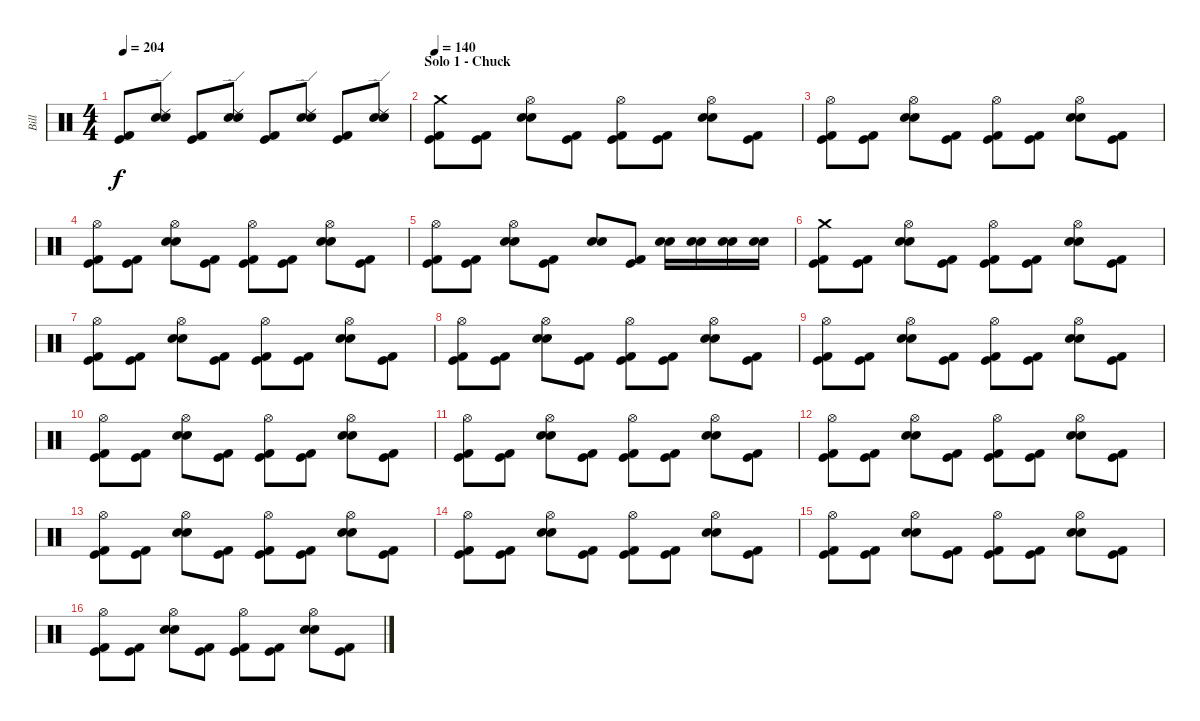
\track ("Bill" "Bill") {instrument percussion}
\staff {score}
\articulation defaults
\ts (4 4)
\tempo 204
\clef neutral
\ks c
("Kick (hit)" "Kick (hit) 2").8{dy f} ("Ride (edge) 2" "Snare (hit) 2" "Electric Snare (hit)").8 ("Kick (hit)" "Kick (hit) 2").8 ("Ride (edge) 2" "Snare (hit) 2" "Electric Snare (hit)").8 ("Kick (hit)" "Kick (hit) 2").8 ("Ride (edge) 2" "Snare (hit) 2" "Electric Snare (hit)").8 ("Kick (hit)" "Kick (hit) 2").8 ("Ride (edge) 2" "Snare (hit) 2" "Electric Snare (hit)").8 |
\section ("" "Solo 1 - Chuck")
\tempo 140
("Crash medium (hit)" "Kick (hit) 2" "Kick (hit)").8 ("Kick (hit) 2" "Kick (hit)").8 ("Hi-Hat (open)" "Snare (hit) 2" "Electric Snare (hit)").8 ("Kick (hit)" "Kick (hit) 2").8 ("Hi-Hat (open)" "Kick (hit)" "Kick (hit) 2").8 ("Kick (hit)" "Kick (hit) 2").8 ("Hi-Hat (open)" "Snare (hit) 2" "Electric Snare (hit)").8 ("Kick (hit)" "Kick (hit) 2").8 |
("Hi-Hat (open)" "Kick (hit) 2" "Kick (hit)").8 ("Kick (hit) 2" "Kick (hit)").8 ("Hi-Hat (open)" "Snare (hit) 2" "Electric Snare (hit)").8 ("Kick (hit)" "Kick (hit) 2").8 ("Hi-Hat (open)" "Kick (hit)" "Kick (hit) 2").8 ("Kick (hit)" "Kick (hit) 2").8 ("Hi-Hat (open)" "Snare (hit) 2" "Electric Snare (hit)").8 ("Kick (hit)" "Kick (hit) 2").8 |
("Hi-Hat (open)" "Kick (hit) 2" "Kick (hit)").8 ("Kick (hit) 2" "Kick (hit)").8 ("Hi-Hat (open)" "Snare (hit) 2" "Electric Snare (hit)").8 ("Kick (hit)" "Kick (hit) 2").8 ("Hi-Hat (open)" "Kick (hit)" "Kick (hit) 2").8 ("Kick (hit)" "Kick (hit) 2").8 ("Hi-Hat (open)" "Snare (hit) 2" "Electric Snare (hit)").8 ("Kick (hit)" "Kick (hit) 2").8 |
("Hi-Hat (open)" "Kick (hit) 2" "Kick (hit)").8 ("Kick (hit) 2" "Kick (hit)").8 ("Hi-Hat (open)" "Snare (hit) 2" "Electric Snare (hit)").8 ("Kick (hit)" "Kick (hit) 2").8 ("Snare (hit) 2" "Electric Snare (hit)").8 ("Kick (hit)" "Kick (hit) 2").8 ("Snare (hit) 2" "Electric Snare (hit)").16 ("Snare (hit) 2" "Electric Snare (hit)").16 ("Snare (hit) 2" "Electric Snare (hit)").16 ("Snare (hit) 2" "Electric Snare (hit)").16 |
("Crash medium (hit)" "Kick (hit) 2" "Kick (hit)").8 ("Kick (hit) 2" "Kick (hit)").8 ("Hi-Hat (open)" "Snare (hit) 2" "Electric Snare (hit)").8 ("Kick (hit)" "Kick (hit) 2").8 ("Hi-Hat (open)" "Kick (hit)" "Kick (hit) 2").8 ("Kick (hit)" "Kick (hit) 2").8 ("Hi-Hat (open)" "Snare (hit) 2" "Electric Snare (hit)").8 ("Kick (hit)" "Kick (hit) 2").8 |
("Hi-Hat (open)" "Kick (hit) 2" "Kick (hit)").8 ("Kick (hit) 2" "Kick (hit)").8 ("Hi-Hat (open)" "Snare (hit) 2" "Electric Snare (hit)").8 ("Kick (hit)" "Kick (hit) 2").8 ("Hi-Hat (open)" "Kick (hit)" "Kick (hit) 2").8 ("Kick (hit)" "Kick (hit) 2").8 ("Hi-Hat (open)" "Snare (hit) 2" "Electric Snare (hit)").8 ("Kick (hit)" "Kick (hit) 2").8 |
("Hi-Hat (open)" "Kick (hit) 2" "Kick (hit)").8 ("Kick (hit) 2" "Kick (hit)").8 ("Hi-Hat (open)" "Snare (hit) 2" "Electric Snare (hit)").8 ("Kick (hit)" "Kick (hit) 2").8 ("Hi-Hat (open)" "Kick (hit)" "Kick (hit) 2").8 ("Kick (hit)" "Kick (hit) 2").8 ("Hi-Hat (open)" "Snare (hit) 2" "Electric Snare (hit)").8 ("Kick (hit)" "Kick (hit) 2").8 |
("Hi-Hat (open)" "Kick (hit) 2" "Kick (hit)").8 ("Kick (hit) 2" "Kick (hit)").8 ("Hi-Hat (open)" "Snare (hit) 2" "Electric Snare (hit)").8 ("Kick (hit)" "Kick (hit) 2").8 ("Hi-Hat (open)" "Kick (hit)" "Kick (hit) 2").8 ("Kick (hit)" "Kick (hit) 2").8 ("Hi-Hat (open)" "Snare (hit) 2" "Electric Snare (hit)").8 ("Kick (hit)" "Kick (hit) 2").8 |
("Hi-Hat (open)" "Kick (hit) 2" "Kick (hit)").8 ("Kick (hit) 2" "Kick (hit)").8 ("Hi-Hat (open)" "Snare (hit) 2" "Electric Snare (hit)").8 ("Kick (hit)" "Kick (hit) 2").8 ("Hi-Hat (open)" "Kick (hit)" "Kick (hit) 2").8 ("Kick (hit)" "Kick (hit) 2").8 ("Hi-Hat (open)" "Snare (hit) 2" "Electric Snare (hit)").8 ("Kick (hit)" "Kick (hit) 2").8 |
("Hi-Hat (open)" "Kick (hit) 2" "Kick (hit)").8 ("Kick (hit) 2" "Kick (hit)").8 ("Hi-Hat (open)" "Snare (hit) 2" "Electric Snare (hit)").8 ("Kick (hit)" "Kick (hit) 2").8 ("Hi-Hat (open)" "Kick (hit)" "Kick (hit) 2").8 ("Kick (hit)" "Kick (hit) 2").8 ("Hi-Hat (open)" "Snare (hit) 2" "Electric Snare (hit)").8 ("Kick (hit)" "Kick (hit) 2").8 |
("Hi-Hat (open)" "Kick (hit) 2" "Kick (hit)").8 ("Kick (hit) 2" "Kick (hit)").8 ("Hi-Hat (open)" "Snare (hit) 2" "Electric Snare (hit)").8 ("Kick (hit)" "Kick (hit) 2").8 ("Hi-Hat (open)" "Kick (hit)" "Kick (hit) 2").8 ("Kick (hit)" "Kick (hit) 2").8 ("Hi-Hat (open)" "Snare (hit) 2" "Electric Snare (hit)").8 ("Kick (hit)" "Kick (hit) 2").8 |
("Hi-Hat (open)" "Kick (hit) 2" "Kick (hit)").8 ("Kick (hit) 2" "Kick (hit)").8 ("Hi-Hat (open)" "Snare (hit) 2" "Electric Snare (hit)").8 ("Kick (hit)" "Kick (hit) 2").8 ("Hi-Hat (open)" "Kick (hit)" "Kick (hit) 2").8 ("Kick (hit)" "Kick (hit) 2").8 ("Hi-Hat (open)" "Snare (hit) 2" "Electric Snare (hit)").8 ("Kick (hit)" "Kick (hit) 2").8 |
("Hi-Hat (open)" "Kick (hit) 2" "Kick (hit)").8 ("Kick (hit) 2" "Kick (hit)").8 ("Hi-Hat (open)" "Snare (hit) 2" "Electric Snare (hit)").8 ("Kick (hit)" "Kick (hit) 2").8 ("Hi-Hat (open)" "Kick (hit)" "Kick (hit) 2").8 ("Kick (hit)" "Kick (hit) 2").8 ("Hi-Hat (open)" "Snare (hit) 2" "Electric Snare (hit)").8 ("Kick (hit)" "Kick (hit) 2").8 |
("Hi-Hat (open)" "Kick (hit) 2" "Kick (hit)").8 ("Kick (hit) 2" "Kick (hit)").8 ("Hi-Hat (open)" "Snare (hit) 2" "Electric Snare (hit)").8 ("Kick (hit)" "Kick (hit) 2").8 ("Hi-Hat (open)" "Kick (hit)" "Kick (hit) 2").8 ("Kick (hit)" "Kick (hit) 2").8 ("Hi-Hat (open)" "Snare (hit) 2" "Electric Snare (hit)").8 ("Kick (hit)" "Kick (hit) 2").8 |
("Hi-Hat (open)" "Kick (hit) 2" "Kick (hit)").8 ("Kick (hit) 2" "Kick (hit)").8 ("Hi-Hat (open)" "Snare (hit) 2" "Electric Snare (hit)").8 ("Kick (hit)" "Kick (hit) 2").8 ("Hi-Hat (open)" "Kick (hit)" "Kick (hit) 2").8 ("Kick (hit)" "Kick (hit) 2").8 ("Hi-Hat (open)" "Snare (hit) 2" "Electric Snare (hit)").8 ("Kick (hit)" "Kick (hit) 2").8
